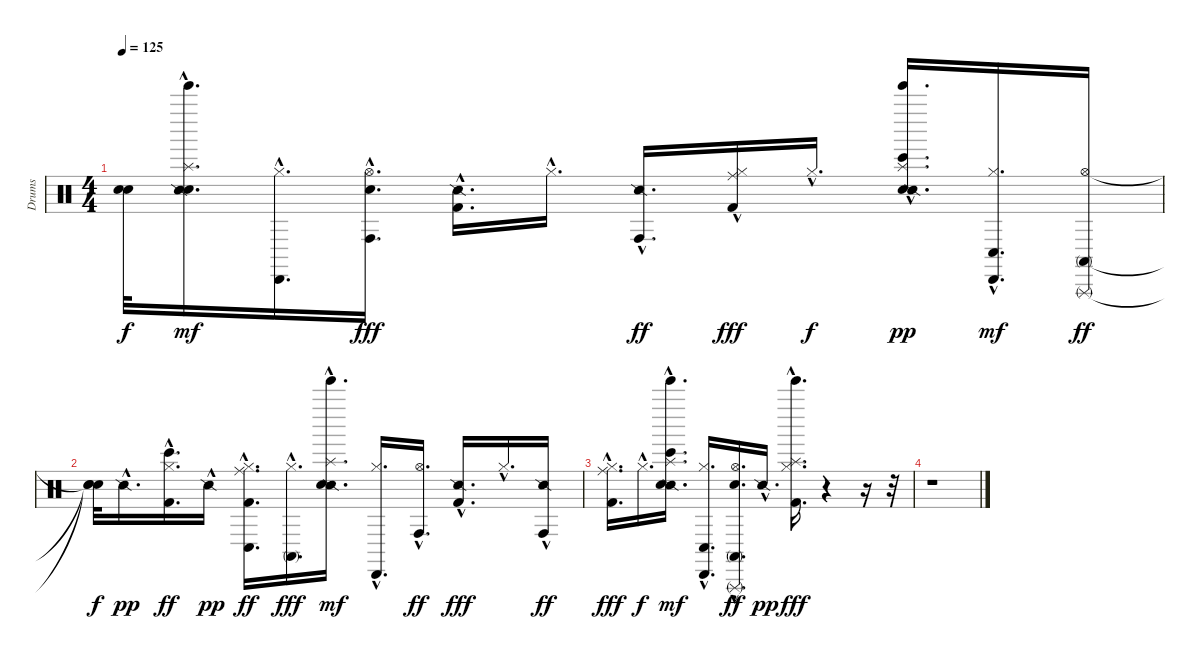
\track ("Drums" "Drums") {instrument percussion}
\staff {score}
\articulation defaults
\ts (4 4)
\tempo 125
\clef neutral
\ks c
("Snare (hit)"{t} "Snare (hit)"{t}).32{dy f} ("Hand Clap (hit)"{hac} "Snare (side stick) 2"{hac} "Splash (hit)"{hac} "Tinkle Bell (hit)"{hac}).16{d dy mf} ("Hi-Hat (closed)"{hac} "Cabasa (hit)"{hac}).16{d} ("Hand Clap (hit)"{hac} "Conga high (hit)"{hac} "Hi-Hat (open)"{hac}).16{d dy fff} ("Snare (side stick) 2"{hac} "Kick (hit) 2"{hac}).16{d} "Hi-Hat (closed)"{hac}.16{d} ("Snare (side stick) 2"{hac} "Conga high (hit)"{hac}).16{d dy ff} ("Ride (middle)"{hac} "Kick (hit) 2"{hac} "Hi-Hat (closed)"{hac}).16{dy fff} "Hi-Hat (closed)"{hac}.16{d dy f} ("Hand Clap (hit)"{hac} "Splash (hit)"{hac} "Bongo High (hit)"{hac} "Tinkle Bell (hit)"{hac} "Snare (side stick) 2"{hac}).16{d dy pp} ("Cabasa (hit)"{hac} "Conga low (hit)"{hac} "Hi-Hat (closed)"{hac}).16{d dy mf} ("Hi-Hat (open)" "Conga high (mute)" "Triangle (rnute)").16{dy ff} |
("Snare (hit)"{t} "Snare (hit)"{t} "Snare (hit)"{t}).32{dy f} "Snare (side stick) 2"{hac}.16{d dy pp} ("Hi-Hat (closed)"{hac} "Kick (hit) 2"{hac} "Bongo High (hit)"{hac}).16{d dy ff} "Snare (side stick) 2"{hac}.16{dy pp} ("Ride (middle)"{hac} "Hi-Hat (closed)"{hac} "Kick (hit) 2"{hac} "Conga low (hit)"{hac}).16{d dy ff} ("Conga high (mute)"{hac} "Hi-Hat (closed)"{hac}).16{d dy fff} ("Snare (side stick) 2"{hac} "Hand Clap (hit)"{hac} "Tinkle Bell (hit)"{hac} "Splash (hit)"{hac}).16{d dy mf} ("Cabasa (hit)"{hac} "Hi-Hat (closed)"{hac}).16{d} ("Hi-Hat (open)"{hac} "Conga high (hit)"{hac}).16{d dy ff} ("Snare (side stick) 2"{hac} "Kick (hit) 2"{hac}).16{d dy fff} "Hi-Hat (closed)"{hac}.16{d} ("Snare (side stick) 2"{hac} "Conga high (hit)"{hac}).16{dy ff} |
("Kick (hit) 2"{hac} "Ride (middle)"{hac} "Hi-Hat (closed)"{hac}).16{d dy fff} "Hi-Hat (closed)"{hac}.16{d dy f} ("Snare (side stick) 2"{hac} "Bongo High (hit)"{hac} "Hand Clap (hit)"{hac} "Tinkle Bell (hit)"{hac} "Splash (hit)"{hac}).16{d dy mf} ("Cabasa (hit)"{hac} "Conga low (hit)"{hac} "Hi-Hat (closed)"{hac}).16{d} ("Hand Clap (hit)"{hac} "Conga high (mute)"{hac} "Hi-Hat (open)"{hac} "Triangle (rnute)"{hac}).16{d dy ff} "Snare (side stick) 2"{hac}.16{d dy pp} ("Splash (hit)"{hac} "Hi-Hat (closed)"{hac} "Tinkle Bell (hit)"{hac} "Kick (hit) 2"{hac}).16{d dy fff} r.4 r.16 r.32 |
r.1
